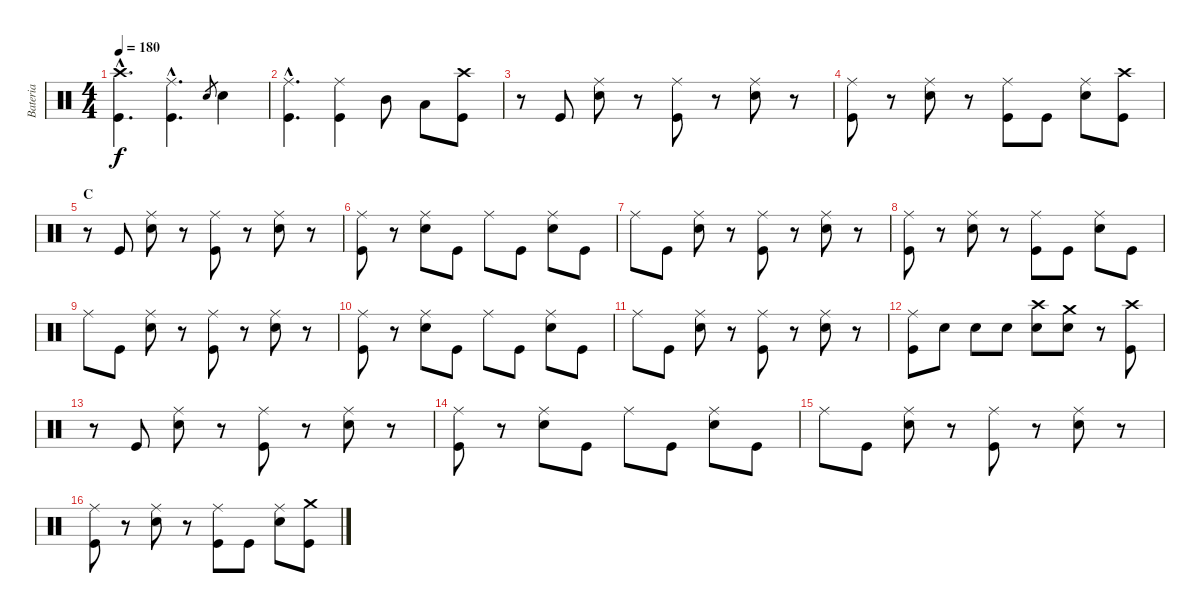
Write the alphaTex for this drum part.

\track ("Bateria" "Bateria") {instrument percussion}
\staff {score}
\articulation defaults
\ts (4 4)
\tempo 180
\clef neutral
\ks c
("Kick (hit)"{hac} "Crash high (hit)"{hac}).4{d dy f} ("Ride (middle)"{hac} "Kick (hit)"{hac}).4{d} "Electric Snare (hit)".8{gr} "Electric Snare (hit)".4 |
("Ride (middle)"{hac} "Kick (hit)"{hac}).4{d} ("Ride (middle)" "Kick (hit)").4 "Mid Tom (hit)".8 "Low Tom (hit)".8 ("Kick (hit)" "Crash high (hit)").8 |
r.8 "Kick (hit)".8 ("Ride (middle)" "Electric Snare (hit)").8 r.8 ("Ride (middle)" "Kick (hit)").8 r.8 ("Ride (middle)" "Electric Snare (hit)").8 r.8 |
("Ride (middle)" "Kick (hit)").8 r.8 ("Ride (middle)" "Electric Snare (hit)").8 r.8 ("Ride (middle)" "Kick (hit)").8 "Kick (hit)".8 ("Ride (middle)" "Electric Snare (hit)").8 ("Kick (hit)" "Crash high (hit)").8 |
\section ("" "C")
r.8 "Kick (hit)".8 ("Ride (middle)" "Electric Snare (hit)").8 r.8 ("Ride (middle)" "Kick (hit)").8 r.8 ("Ride (middle)" "Electric Snare (hit)").8 r.8 |
("Ride (middle)" "Kick (hit)").8 r.8 ("Ride (middle)" "Electric Snare (hit)").8 "Kick (hit)".8 "Ride (middle)".8 "Kick (hit)".8 ("Ride (middle)" "Electric Snare (hit)").8 "Kick (hit)".8 |
"Ride (middle)".8 "Kick (hit)".8 ("Ride (middle)" "Electric Snare (hit)").8 r.8 ("Ride (middle)" "Kick (hit)").8 r.8 ("Ride (middle)" "Electric Snare (hit)").8 r.8 |
("Ride (middle)" "Kick (hit)").8 r.8 ("Ride (middle)" "Electric Snare (hit)").8 r.8 ("Ride (middle)" "Kick (hit)").8 "Kick (hit)".8 ("Ride (middle)" "Electric Snare (hit)").8 "Kick (hit)".8 |
"Ride (middle)".8 "Kick (hit)".8 ("Ride (middle)" "Electric Snare (hit)").8 r.8 ("Ride (middle)" "Kick (hit)").8 r.8 ("Ride (middle)" "Electric Snare (hit)").8 r.8 |
("Ride (middle)" "Kick (hit)").8 r.8 ("Ride (middle)" "Electric Snare (hit)").8 "Kick (hit)".8 "Ride (middle)".8 "Kick (hit)".8 ("Ride (middle)" "Electric Snare (hit)").8 "Kick (hit)".8 |
"Ride (middle)".8 "Kick (hit)".8 ("Ride (middle)" "Electric Snare (hit)").8 r.8 ("Ride (middle)" "Kick (hit)").8 r.8 ("Ride (middle)" "Electric Snare (hit)").8 r.8 |
("Ride (middle)" "Kick (hit)").8 "Electric Snare (hit)".8 "Electric Snare (hit)".8 "Electric Snare (hit)".8 ("Electric Snare (hit)" "Crash high (hit)").8 ("Electric Snare (hit)" "Crash medium (hit)").8 r.8 ("Kick (hit)" "Crash high (hit)").8 |
r.8 "Kick (hit)".8 ("Ride (middle)" "Electric Snare (hit)").8 r.8 ("Ride (middle)" "Kick (hit)").8 r.8 ("Ride (middle)" "Electric Snare (hit)").8 r.8 |
("Ride (middle)" "Kick (hit)").8 r.8 ("Ride (middle)" "Electric Snare (hit)").8 "Kick (hit)".8 "Ride (middle)".8 "Kick (hit)".8 ("Ride (middle)" "Electric Snare (hit)").8 "Kick (hit)".8 |
"Ride (middle)".8 "Kick (hit)".8 ("Ride (middle)" "Electric Snare (hit)").8 r.8 ("Ride (middle)" "Kick (hit)").8 r.8 ("Ride (middle)" "Electric Snare (hit)").8 r.8 |
("Ride (middle)" "Kick (hit)").8 r.8 ("Ride (middle)" "Electric Snare (hit)").8 r.8 ("Ride (middle)" "Kick (hit)").8 "Kick (hit)".8 ("Ride (middle)" "Electric Snare (hit)").8 ("Kick (hit)" "Crash medium (hit)").8
